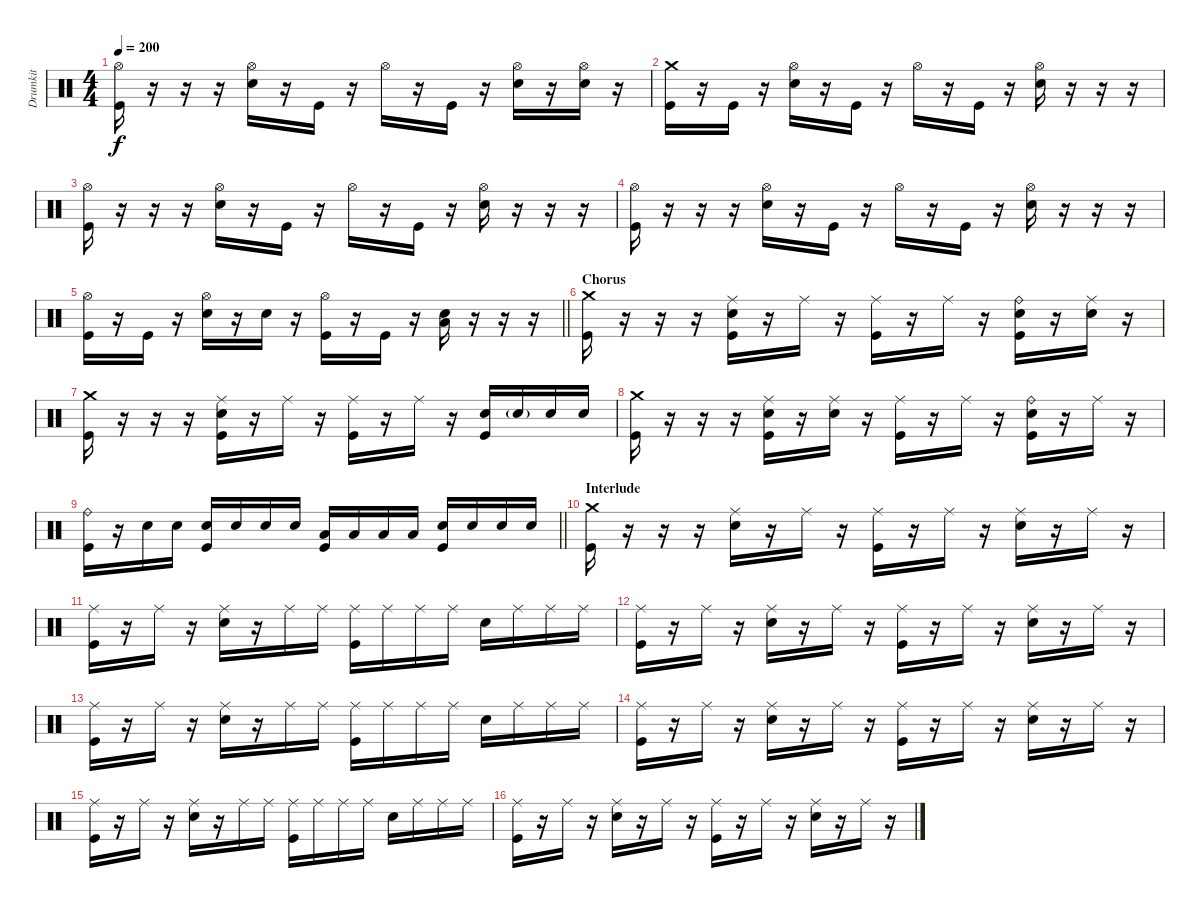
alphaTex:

\track ("Drumkit" "Drumkit") {instrument percussion}
\staff {score}
\articulation defaults
\ts (4 4)
\tempo 200
\clef neutral
\ks c
("Hi-Hat (open)" "Kick (hit)").16{dy f} r.16 r.16 r.16 ("Hi-Hat (open)" "Snare (hit) 2").16 r.16 "Kick (hit)".16 r.16 "Hi-Hat (open)".16 r.16 "Kick (hit)".16 r.16 ("Hi-Hat (open)" "Snare (hit) 2").16 r.16 ("Hi-Hat (open)" "Snare (hit) 2").16 r.16 |
("Crash medium (hit)" "Kick (hit)").16 r.16 "Kick (hit)".16 r.16 ("Hi-Hat (open)" "Snare (hit) 2").16 r.16 "Kick (hit)".16 r.16 "Hi-Hat (open)".16 r.16 "Kick (hit)".16 r.16 ("Hi-Hat (open)" "Snare (hit) 2").16 r.16 r.16 r.16 |
("Hi-Hat (open)" "Kick (hit)").16 r.16 r.16 r.16 ("Hi-Hat (open)" "Snare (hit) 2").16 r.16 "Kick (hit)".16 r.16 "Hi-Hat (open)".16 r.16 "Kick (hit)".16 r.16 ("Hi-Hat (open)" "Snare (hit) 2").16 r.16 r.16 r.16 |
("Hi-Hat (open)" "Kick (hit)").16 r.16 r.16 r.16 ("Hi-Hat (open)" "Snare (hit) 2").16 r.16 "Kick (hit)".16 r.16 "Hi-Hat (open)".16 r.16 "Kick (hit)".16 r.16 ("Hi-Hat (open)" "Snare (hit) 2").16 r.16 r.16 r.16 |
\barLineRight lightlight
("Hi-Hat (open)" "Kick (hit)").16 r.16 "Kick (hit)".16 r.16 ("Hi-Hat (open)" "Snare (hit) 2").16 r.16 "Snare (hit) 2".16 r.16 ("Hi-Hat (open)" "Kick (hit)").16 r.16 "Kick (hit)".16 r.16 ("Low Floor Tom (hit)" "Snare (hit) 2").16 r.16 r.16 r.16 |
\section ("" "Chorus")
("Crash medium (hit)" "Kick (hit)").16 r.16 r.16 r.16 ("Ride (middle)" "Kick (hit)" "Snare (hit) 2").16 r.16 "Ride (middle)".16 r.16 ("Ride (middle)" "Kick (hit)").16 r.16 "Ride (middle)".16 r.16 ("Ride (bell)" "Kick (hit)" "Snare (hit) 2").16 r.16 ("Ride (middle)" "Snare (hit) 2").16 r.16 |
("Crash medium (hit)" "Kick (hit)").16 r.16 r.16 r.16 ("Ride (middle)" "Kick (hit)" "Snare (hit) 2").16 r.16 "Ride (middle)".16 r.16 ("Ride (middle)" "Kick (hit)").16 r.16 "Ride (middle)".16 r.16 ("Kick (hit)" "Snare (hit) 2").16 "Snare (hit) 2"{g}.16 "Snare (hit) 2".16 "Snare (hit) 2".16 |
("Crash medium (hit)" "Kick (hit)").16 r.16 r.16 r.16 ("Ride (middle)" "Kick (hit)" "Snare (hit) 2").16 r.16 ("Ride (middle)" "Snare (hit) 2").16 r.16 ("Ride (middle)" "Kick (hit)").16 r.16 "Ride (middle)".16 r.16 ("Ride (bell)" "Kick (hit)" "Snare (hit) 2").16 r.16 "Ride (middle)".16 r.16 |
\barLineRight lightlight
("Ride (bell)" "Kick (hit)").16 r.16 "Snare (hit) 2".16 "Snare (hit) 2".16 ("Kick (hit)" "Snare (hit) 2").16 "Snare (hit) 2".16 "Snare (hit) 2".16 "Snare (hit) 2".16 ("Low Tom (hit)" "Kick (hit)").16 "Low Tom (hit)".16 "Low Tom (hit)".16 "Low Tom (hit)".16 ("Kick (hit)" "Snare (hit) 2").16 "Snare (hit) 2".16 "Snare (hit) 2".16 "Snare (hit) 2".16 |
\section ("" "Interlude")
("Crash medium (hit)" "Kick (hit)").16 r.16 r.16 r.16 ("Ride (middle)" "Snare (hit) 2").16 r.16 "Ride (middle)".16 r.16 ("Ride (middle)" "Kick (hit)").16 r.16 "Ride (middle)".16 r.16 ("Ride (middle)" "Snare (hit) 2").16 r.16 "Ride (middle)".16 r.16 |
("Ride (middle)" "Kick (hit)").16 r.16 "Ride (middle)".16 r.16 ("Ride (middle)" "Snare (hit) 2").16 r.16 "Ride (middle)".16 "Ride (middle)".16 ("Ride (middle)" "Kick (hit)").16 "Ride (middle)".16 "Ride (middle)".16 "Ride (middle)".16 "Snare (hit) 2".16 "Ride (middle)".16 "Ride (middle)".16 "Ride (middle)".16 |
("Ride (middle)" "Kick (hit)").16 r.16 "Ride (middle)".16 r.16 ("Ride (middle)" "Snare (hit) 2").16 r.16 "Ride (middle)".16 r.16 ("Ride (middle)" "Kick (hit)").16 r.16 "Ride (middle)".16 r.16 ("Ride (middle)" "Snare (hit) 2").16 r.16 "Ride (middle)".16 r.16 |
("Ride (middle)" "Kick (hit)").16 r.16 "Ride (middle)".16 r.16 ("Ride (middle)" "Snare (hit) 2").16 r.16 "Ride (middle)".16 "Ride (middle)".16 ("Ride (middle)" "Kick (hit)").16 "Ride (middle)".16 "Ride (middle)".16 "Ride (middle)".16 "Snare (hit) 2".16 "Ride (middle)".16 "Ride (middle)".16 "Ride (middle)".16 |
("Ride (middle)" "Kick (hit)").16 r.16 "Ride (middle)".16 r.16 ("Ride (middle)" "Snare (hit) 2").16 r.16 "Ride (middle)".16 r.16 ("Ride (middle)" "Kick (hit)").16 r.16 "Ride (middle)".16 r.16 ("Ride (middle)" "Snare (hit) 2").16 r.16 "Ride (middle)".16 r.16 |
("Ride (middle)" "Kick (hit)").16 r.16 "Ride (middle)".16 r.16 ("Ride (middle)" "Snare (hit) 2").16 r.16 "Ride (middle)".16 "Ride (middle)".16 ("Ride (middle)" "Kick (hit)").16 "Ride (middle)".16 "Ride (middle)".16 "Ride (middle)".16 "Snare (hit) 2".16 "Ride (middle)".16 "Ride (middle)".16 "Ride (middle)".16 |
("Ride (middle)" "Kick (hit)").16 r.16 "Ride (middle)".16 r.16 ("Ride (middle)" "Snare (hit) 2").16 r.16 "Ride (middle)".16 r.16 ("Ride (middle)" "Kick (hit)").16 r.16 "Ride (middle)".16 r.16 ("Ride (middle)" "Snare (hit) 2").16 r.16 "Ride (middle)".16 r.16
